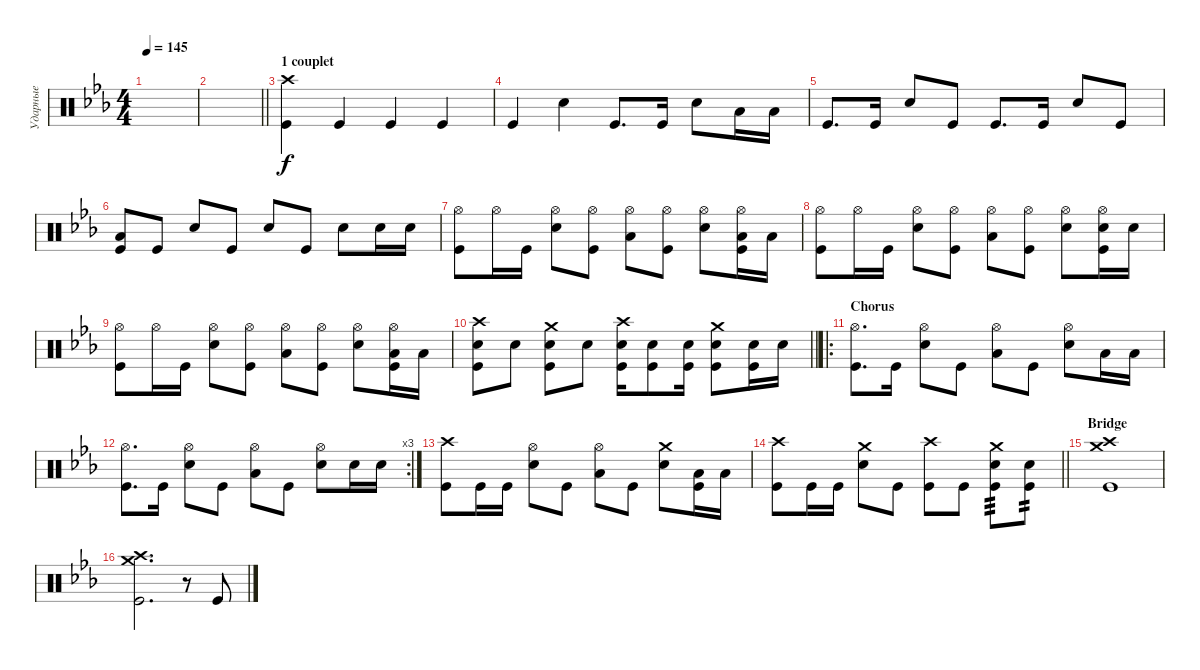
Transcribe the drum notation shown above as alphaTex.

\track ("Ударные" "Ударные") {instrument percussion}
\staff {score}
\articulation defaults
\ts (4 4)
\tempo 145
\clef neutral
\ks cminor
|
\barLineRight lightlight
|
\section ("" "1 couplet")
("Crash high (hit)" "Kick (hit)").4 "Kick (hit)".4 "Kick (hit)".4 "Kick (hit)".4 |
"Kick (hit)".4 "Snare (hit) 2".4 "Kick (hit)".8{d} "Kick (hit)".16 "Snare (hit) 2".8 "Low Floor Tom (hit)".16 "Low Floor Tom (hit)".16 |
"Kick (hit)".8{d} "Kick (hit)".16 "Snare (hit) 2".8 "Kick (hit)".8 "Kick (hit)".8{d} "Kick (hit)".16 "Snare (hit) 2".8 "Kick (hit)".8 |
("Low Floor Tom (hit)" "Kick (hit)").8 "Kick (hit)".8 "Snare (hit) 2".8 "Kick (hit)".8 "Snare (hit) 2".8 "Kick (hit)".8 "Snare (hit) 2".8 "Snare (hit) 2".16 "Snare (hit) 2".16 |
("Hi-Hat (open)" "Kick (hit)").8 "Hi-Hat (open)".16 "Kick (hit)".16 ("Hi-Hat (open)" "Snare (hit) 2").8 ("Hi-Hat (open)" "Kick (hit)").8 ("Hi-Hat (open)" "Low Floor Tom (hit)").8 ("Hi-Hat (open)" "Kick (hit)").8 ("Hi-Hat (open)" "Snare (hit) 2").8 ("Hi-Hat (open)" "Low Floor Tom (hit)" "Kick (hit)").16 "Low Floor Tom (hit)".16 |
("Hi-Hat (open)" "Kick (hit)").8 "Hi-Hat (open)".16 "Kick (hit)".16 ("Hi-Hat (open)" "Snare (hit) 2").8 ("Hi-Hat (open)" "Kick (hit)").8 ("Hi-Hat (open)" "Low Floor Tom (hit)").8 ("Hi-Hat (open)" "Kick (hit)").8 ("Hi-Hat (open)" "Snare (hit) 2").8 ("Hi-Hat (open)" "Snare (hit) 2" "Kick (hit)").16 "Snare (hit) 2".16 |
("Hi-Hat (open)" "Kick (hit)").8 "Hi-Hat (open)".16 "Kick (hit)".16 ("Hi-Hat (open)" "Snare (hit) 2").8 ("Hi-Hat (open)" "Kick (hit)").8 ("Hi-Hat (open)" "Low Floor Tom (hit)").8 ("Hi-Hat (open)" "Kick (hit)").8 ("Hi-Hat (open)" "Snare (hit) 2").8 ("Hi-Hat (open)" "Low Floor Tom (hit)" "Kick (hit)").16 "Low Floor Tom (hit)".16 |
\barLineRight lightlight
("Crash high (hit)" "Snare (hit) 2" "Kick (hit)").8 "Snare (hit) 2".8 ("Crash medium (hit)" "Snare (hit) 2" "Kick (hit)").8 "Snare (hit) 2".8 ("Crash high (hit)" "Snare (hit) 2" "Kick (hit)").16 ("Snare (hit) 2" "Kick (hit)").8 ("Snare (hit) 2" "Kick (hit)").16 ("Crash medium (hit)" "Snare (hit) 2" "Kick (hit)").8 ("Snare (hit) 2" "Kick (hit)").16 "Snare (hit) 2".16 |
\ro
\section ("" "Chorus")
("Hi-Hat (open)" "Kick (hit)").8{d} "Kick (hit)".16 ("Hi-Hat (open)" "Snare (hit) 2").8 "Kick (hit)".8 ("Hi-Hat (open)" "Low Floor Tom (hit)").8 "Kick (hit)".8 ("Hi-Hat (open)" "Snare (hit) 2").8 "Low Floor Tom (hit)".16 "Low Floor Tom (hit)".16 |
\rc 3
("Hi-Hat (open)" "Kick (hit)").8{d} "Kick (hit)".16 ("Hi-Hat (open)" "Snare (hit) 2").8 "Kick (hit)".8 ("Hi-Hat (open)" "Low Floor Tom (hit)").8 "Kick (hit)".8 ("Hi-Hat (open)" "Snare (hit) 2").8 "Snare (hit) 2".16 "Snare (hit) 2".16 |
("Crash high (hit)" "Kick (hit)").8 "Kick (hit)".16 "Kick (hit)".16 ("Hi-Hat (open)" "Snare (hit) 2").8 "Kick (hit)".8 ("Hi-Hat (open)" "Low Floor Tom (hit)").8 "Kick (hit)".8 ("Crash medium (hit)" "Snare (hit) 2").8 ("Low Floor Tom (hit)" "Kick (hit)").16 "Low Floor Tom (hit)".16 |
\barLineRight lightlight
("Crash high (hit)" "Kick (hit)").8 "Kick (hit)".16 "Kick (hit)".16 ("Crash medium (hit)" "Snare (hit) 2").8 "Kick (hit)".8 ("Crash high (hit)" "Kick (hit)").8 "Kick (hit)".8 ("Crash medium (hit)" "Snare (hit) 2" "Kick (hit)").8{tp 3} ("Snare (hit) 2" "Kick (hit)").8{tp 2} |
\section ("" "Bridge")
("Crash medium (hit)" "Crash high (hit)" "Kick (hit)").1 |
("Crash medium (hit)" "Crash high (hit)" "Kick (hit)").2{d} r.8 "Kick (hit)".8
